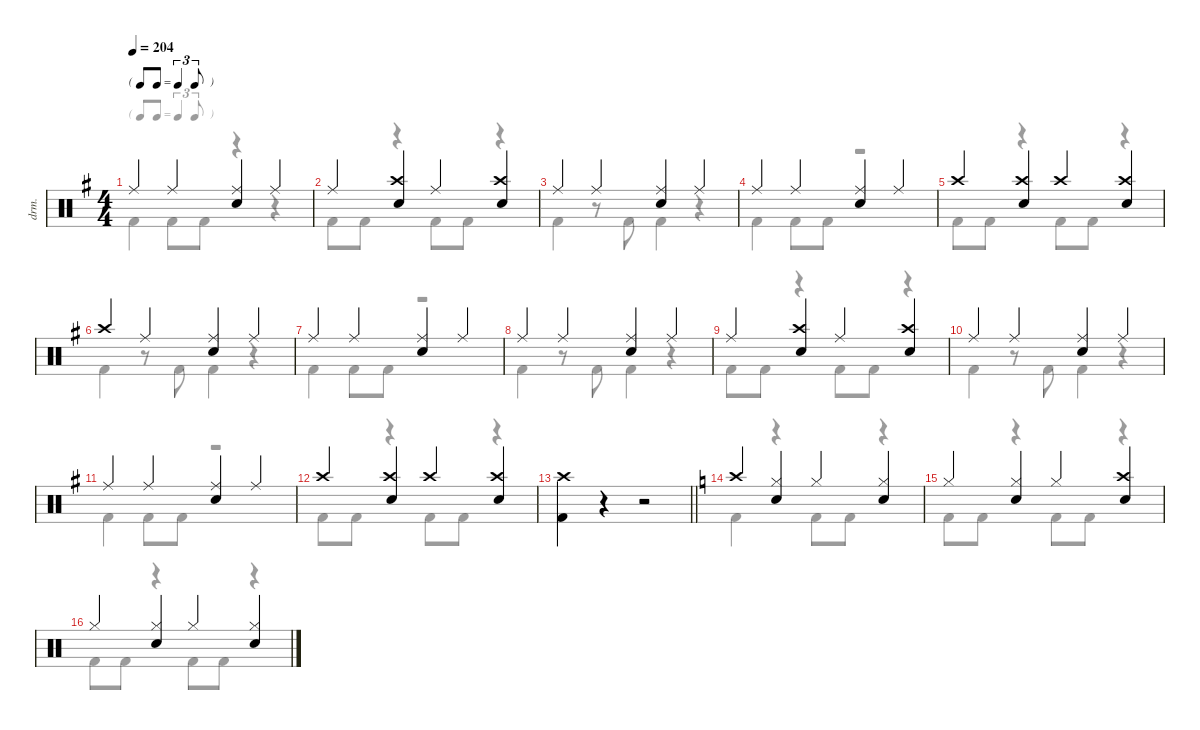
\defaultSystemsLayout 4
\hideDynamics
\bracketExtendMode nobrackets
\otherSystemsTrackNameOrientation horizontal
\track ("Lars Ulrich" "drm.") {defaultSystemsLayout 8 instrument percussion}
\staff {score}
\articulation defaults
\voice
\ts (4 4)
\tf triplet8th
\tempo 204
\clef neutral
\ks eminor "Ride (middle)"{acc forcenatural}.4{dy f beam Up} "Ride (middle)"{acc forcenatural}.4{beam Up}
("Ride (middle)"{acc forcenatural} "Snare (hit) 2"{acc forcenatural}).4{beam Up} "Ride (middle)"{acc forcenatural}.4{beam Up} |
"Ride (middle)"{acc forcenatural}.4{beam Up} ("Crash high (hit)"{acc forcenatural} "Snare (hit) 2"{acc forcenatural}).4{beam Up} "Ride (middle)"{acc forcenatural}.4{beam Up} ("Crash high (hit)"{acc forcenatural} "Snare (hit) 2"{acc forcenatural}).4{beam Up} |
"Ride (middle)"{acc forcenatural}.4{beam Up} "Ride (middle)"{acc forcenatural}.4{beam Up} ("Ride (middle)"{acc forcenatural} "Snare (hit) 2"{acc forcenatural}).4{beam Up} "Ride (middle)"{acc forcenatural}.4{beam Up} |
"Ride (middle)"{acc forcenatural}.4{beam Up} "Ride (middle)"{acc forcenatural}.4{beam Up} ("Ride (middle)"{acc forcenatural} "Snare (hit) 2"{acc forcenatural}).4{beam Up} "Ride (middle)"{acc forcenatural}.4{beam Up} |
"Crash high (hit)"{acc forcenatural}.4{beam Up} ("Crash high (hit)"{acc forcenatural} "Snare (hit) 2"{acc forcenatural}).4{beam Up} "Crash high (hit)"{acc forcenatural}.4{beam Up} ("Crash high (hit)"{acc forcenatural} "Snare (hit) 2"{acc forcenatural}).4{beam Up} |
"Crash high (hit)"{acc forcenatural}.4{beam Up} "Ride (middle)"{acc forcenatural}.4{beam Up} ("Ride (middle)"{acc forcenatural} "Snare (hit) 2"{acc forcenatural}).4{beam Up} "Ride (middle)"{acc forcenatural}.4{beam Up} |
"Ride (middle)"{acc forcenatural}.4{beam Up} "Ride (middle)"{acc forcenatural}.4{beam Up} ("Ride (middle)"{acc forcenatural} "Snare (hit) 2"{acc forcenatural}).4{beam Up} "Ride (middle)"{acc forcenatural}.4{beam Up} |
"Ride (middle)"{acc forcenatural}.4{beam Up} "Ride (middle)"{acc forcenatural}.4{beam Up} ("Ride (middle)"{acc forcenatural} "Snare (hit) 2"{acc forcenatural}).4{beam Up} "Ride (middle)"{acc forcenatural}.4{beam Up} |
"Ride (middle)"{acc forcenatural}.4{beam Up} ("Crash high (hit)"{acc forcenatural} "Snare (hit) 2"{acc forcenatural}).4{beam Up} "Ride (middle)"{acc forcenatural}.4{beam Up} ("Crash high (hit)"{acc forcenatural} "Snare (hit) 2"{acc forcenatural}).4{beam Up} |
"Ride (middle)"{acc forcenatural}.4{beam Up} "Ride (middle)"{acc forcenatural}.4{beam Up} ("Ride (middle)"{acc forcenatural} "Snare (hit) 2"{acc forcenatural}).4{beam Up} "Ride (middle)"{acc forcenatural}.4{beam Up} |
"Ride (middle)"{acc forcenatural}.4{beam Up} "Ride (middle)"{acc forcenatural}.4{beam Up} ("Ride (middle)"{acc forcenatural} "Snare (hit) 2"{acc forcenatural}).4{beam Up} "Ride (middle)"{acc forcenatural}.4{beam Up} |
"Crash high (hit)"{acc forcenatural}.4{beam Up} ("Crash high (hit)"{acc forcenatural} "Snare (hit) 2"{acc forcenatural}).4{beam Up} "Crash high (hit)"{acc forcenatural}.4{beam Up} ("Crash high (hit)"{acc forcenatural} "Snare (hit) 2"{acc forcenatural}).4{beam Up} |
\barLineRight lightlight
("Crash high (hit)"{acc forcenatural} "Kick (hit) 2"{acc forcenatural}).4{beam Down} r.4{beam Down} r.2{beam Down} |
\ks aminor "Crash high (hit)".4{beam Up}
("Hi-Hat (closed)" "Snare (hit) 2").4{beam Up} "Hi-Hat (closed)".4{beam Up} ("Hi-Hat (closed)" "Snare (hit) 2").4{beam Up} |
"Hi-Hat (closed)".4{beam Up} ("Hi-Hat (closed)" "Snare (hit) 2").4{beam Up} "Hi-Hat (closed)".4{beam Up} ("Crash high (hit)" "Snare (hit) 2").4{beam Up} |
"Hi-Hat (closed)".4{beam Up} ("Hi-Hat (closed)" "Snare (hit) 2").4{beam Up} "Hi-Hat (closed)".4{beam Up} ("Hi-Hat (closed)" "Snare (hit) 2").4{beam Up}
\voice
\clef neutral
\ottava regular
\simile none
\ks eminor "Kick (hit) 2"{acc forcenatural}.4{dy f beam Down} "Kick (hit) 2"{acc forcenatural}.8{beam Down} "Kick (hit) 2"{acc forcenatural}.8{beam Down}
r.4{beam Down} r.4{beam Down} |
"Kick (hit) 2"{acc forcenatural}.8{beam Down} "Kick (hit) 2"{acc forcenatural}.8{beam Down} r.4{beam Down} "Kick (hit) 2"{acc forcenatural}.8{beam Down} "Kick (hit) 2"{acc forcenatural}.8{beam Down} r.4{beam Down} |
"Kick (hit) 2"{acc forcenatural}.4{beam Down} r.8{beam Down} "Kick (hit) 2"{acc forcenatural}.8{beam Down} "Kick (hit) 2"{acc forcenatural}.4{beam Down} r.4{beam Down} |
"Kick (hit) 2"{acc forcenatural}.4{beam Down} "Kick (hit) 2"{acc forcenatural}.8{beam Down} "Kick (hit) 2"{acc forcenatural}.8{beam Down} r.2{beam Down} |
"Kick (hit) 2"{acc forcenatural}.8{beam Down} "Kick (hit) 2"{acc forcenatural}.8{beam Down} r.4{beam Down} "Kick (hit) 2"{acc forcenatural}.8{beam Down} "Kick (hit) 2"{acc forcenatural}.8{beam Down} r.4{beam Down} |
"Kick (hit) 2"{acc forcenatural}.4{beam Down} r.8{beam Down} "Kick (hit) 2"{acc forcenatural}.8{beam Down} "Kick (hit) 2"{acc forcenatural}.4{beam Down} r.4{beam Down} |
"Kick (hit) 2"{acc forcenatural}.4{beam Down} "Kick (hit) 2"{acc forcenatural}.8{beam Down} "Kick (hit) 2"{acc forcenatural}.8{beam Down} r.2{beam Down} |
"Kick (hit) 2"{acc forcenatural}.4{beam Down} r.8{beam Down} "Kick (hit) 2"{acc forcenatural}.8{beam Down} "Kick (hit) 2"{acc forcenatural}.4{beam Down} r.4{beam Down} |
"Kick (hit) 2"{acc forcenatural}.8{beam Down} "Kick (hit) 2"{acc forcenatural}.8{beam Down} r.4{beam Down} "Kick (hit) 2"{acc forcenatural}.8{beam Down} "Kick (hit) 2"{acc forcenatural}.8{beam Down} r.4{beam Down} |
"Kick (hit) 2"{acc forcenatural}.4{beam Down} r.8{beam Down} "Kick (hit) 2"{acc forcenatural}.8{beam Down} "Kick (hit) 2"{acc forcenatural}.4{beam Down} r.4{beam Down} |
"Kick (hit) 2"{acc forcenatural}.4{beam Down} "Kick (hit) 2"{acc forcenatural}.8{beam Down} "Kick (hit) 2"{acc forcenatural}.8{beam Down} r.2{beam Down} |
"Kick (hit) 2"{acc forcenatural}.8{beam Down} "Kick (hit) 2"{acc forcenatural}.8{beam Down} r.4{beam Down} "Kick (hit) 2"{acc forcenatural}.8{beam Down} "Kick (hit) 2"{acc forcenatural}.8{beam Down} r.4{beam Down} |
\barLineRight lightlight
|
\ks aminor "Kick (hit) 2".4{beam Down}
r.4{beam Down} "Kick (hit) 2".8{beam Down} "Kick (hit) 2".8{beam Down} r.4{beam Down} |
"Kick (hit) 2".8{beam Down} "Kick (hit) 2".8{beam Down} r.4{beam Down} "Kick (hit) 2".8{beam Down} "Kick (hit) 2".8{beam Down} r.4{beam Down} |
"Kick (hit) 2".8{beam Down} "Kick (hit) 2".8{beam Down} r.4{beam Down} "Kick (hit) 2".8{beam Down} "Kick (hit) 2".8{beam Down} r.4{beam Down}
